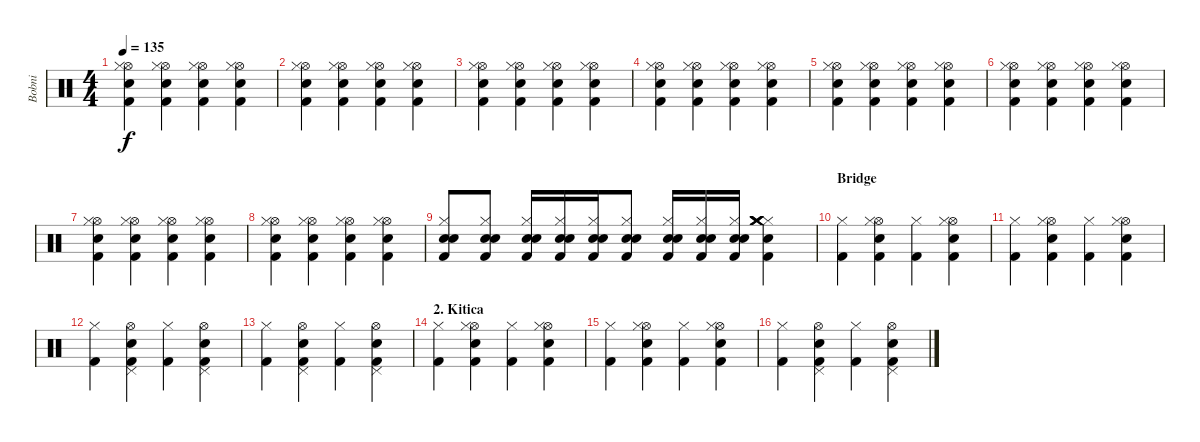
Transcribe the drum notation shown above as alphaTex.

\track ("Bobni" "Bobni") {instrument percussion}
\staff {score}
\articulation defaults
\ts (4 4)
\tempo 135
\clef neutral
\ks c
("Hi-Hat (open)" "Snare (hit) 2" "Hi-Hat (closed)" "Kick (hit) 2").4{dy f} ("Hi-Hat (open)" "Snare (hit) 2" "Hi-Hat (closed)" "Kick (hit) 2").4 ("Hi-Hat (open)" "Snare (hit) 2" "Hi-Hat (closed)" "Kick (hit) 2").4 ("Hi-Hat (open)" "Snare (hit) 2" "Hi-Hat (closed)" "Kick (hit) 2").4 |
("Hi-Hat (open)" "Snare (hit) 2" "Hi-Hat (closed)" "Kick (hit) 2").4 ("Hi-Hat (open)" "Snare (hit) 2" "Hi-Hat (closed)" "Kick (hit) 2").4 ("Hi-Hat (open)" "Snare (hit) 2" "Hi-Hat (closed)" "Kick (hit) 2").4 ("Hi-Hat (open)" "Snare (hit) 2" "Hi-Hat (closed)" "Kick (hit) 2").4 |
("Hi-Hat (open)" "Snare (hit) 2" "Hi-Hat (closed)" "Kick (hit) 2").4 ("Hi-Hat (open)" "Snare (hit) 2" "Hi-Hat (closed)" "Kick (hit) 2").4 ("Hi-Hat (open)" "Snare (hit) 2" "Hi-Hat (closed)" "Kick (hit) 2").4 ("Hi-Hat (open)" "Snare (hit) 2" "Hi-Hat (closed)" "Kick (hit) 2").4 |
("Hi-Hat (open)" "Snare (hit) 2" "Hi-Hat (closed)" "Kick (hit) 2").4 ("Hi-Hat (open)" "Snare (hit) 2" "Hi-Hat (closed)" "Kick (hit) 2").4 ("Hi-Hat (open)" "Snare (hit) 2" "Hi-Hat (closed)" "Kick (hit) 2").4 ("Hi-Hat (open)" "Snare (hit) 2" "Hi-Hat (closed)" "Kick (hit) 2").4 |
("Hi-Hat (open)" "Snare (hit) 2" "Hi-Hat (closed)" "Kick (hit) 2").4 ("Hi-Hat (open)" "Snare (hit) 2" "Hi-Hat (closed)" "Kick (hit) 2").4 ("Hi-Hat (open)" "Snare (hit) 2" "Hi-Hat (closed)" "Kick (hit) 2").4 ("Hi-Hat (open)" "Snare (hit) 2" "Hi-Hat (closed)" "Kick (hit) 2").4 |
("Hi-Hat (open)" "Snare (hit) 2" "Hi-Hat (closed)" "Kick (hit) 2").4 ("Hi-Hat (open)" "Snare (hit) 2" "Hi-Hat (closed)" "Kick (hit) 2").4 ("Hi-Hat (open)" "Snare (hit) 2" "Hi-Hat (closed)" "Kick (hit) 2").4 ("Hi-Hat (open)" "Snare (hit) 2" "Hi-Hat (closed)" "Kick (hit) 2").4 |
("Hi-Hat (open)" "Snare (hit) 2" "Hi-Hat (closed)" "Kick (hit) 2").4 ("Hi-Hat (open)" "Snare (hit) 2" "Hi-Hat (closed)" "Kick (hit) 2").4 ("Hi-Hat (open)" "Snare (hit) 2" "Hi-Hat (closed)" "Kick (hit) 2").4 ("Hi-Hat (open)" "Snare (hit) 2" "Hi-Hat (closed)" "Kick (hit) 2").4 |
("Hi-Hat (open)" "Snare (hit) 2" "Hi-Hat (closed)" "Kick (hit) 2").4 ("Hi-Hat (open)" "Snare (hit) 2" "Hi-Hat (closed)" "Kick (hit) 2").4 ("Hi-Hat (open)" "Snare (hit) 2" "Hi-Hat (closed)" "Kick (hit) 2").4 ("Hi-Hat (open)" "Snare (hit) 2" "Hi-Hat (closed)" "Kick (hit) 2").4 |
("Hi-Hat (closed)" "Snare (hit) 2" "Snare (hit) 2" "Kick (hit) 2").8 ("Hi-Hat (closed)" "Snare (hit) 2" "Snare (hit) 2" "Kick (hit) 2").8 ("Hi-Hat (closed)" "Snare (hit) 2" "Snare (hit) 2" "Kick (hit) 2").16 ("Hi-Hat (closed)" "Snare (hit) 2" "Snare (hit) 2" "Kick (hit) 2").16 ("Hi-Hat (closed)" "Snare (hit) 2" "Snare (hit) 2" "Kick (hit) 2").16 ("Hi-Hat (closed)" "Snare (hit) 2" "Snare (hit) 2" "Kick (hit) 2").8 ("Hi-Hat (closed)" "Snare (hit) 2" "Snare (hit) 2" "Kick (hit) 2").16 ("Hi-Hat (closed)" "Snare (hit) 2" "Snare (hit) 2" "Kick (hit) 2").16 ("Hi-Hat (closed)" "Snare (hit) 2" "Snare (hit) 2" "Kick (hit) 2").16 ("Hi-Hat (closed)" "Crash medium (hit)" "Snare (hit) 2" "Crash medium (hit)" "Crash medium (hit)" "Kick (hit) 2").4 |
\section ("" "Bridge")
("Hi-Hat (closed)" "Kick (hit) 2").4 ("Hi-Hat (open)" "Snare (hit) 2" "Hi-Hat (closed)" "Kick (hit) 2").4 ("Hi-Hat (closed)" "Kick (hit) 2").4 ("Hi-Hat (open)" "Snare (hit) 2" "Hi-Hat (closed)" "Kick (hit) 2").4 |
("Hi-Hat (closed)" "Kick (hit) 2").4 ("Hi-Hat (open)" "Snare (hit) 2" "Hi-Hat (closed)" "Kick (hit) 2").4 ("Hi-Hat (closed)" "Kick (hit) 2").4 ("Hi-Hat (open)" "Snare (hit) 2" "Hi-Hat (closed)" "Kick (hit) 2").4 |
("Hi-Hat (closed)" "Kick (hit) 2").4 ("Hi-Hat (open)" "Snare (hit) 2" "Pedal Hi-Hat (hit)" "Kick (hit) 2").4 ("Hi-Hat (closed)" "Kick (hit) 2").4 ("Hi-Hat (open)" "Snare (hit) 2" "Pedal Hi-Hat (hit)" "Kick (hit) 2").4 |
("Hi-Hat (closed)" "Kick (hit) 2").4 ("Hi-Hat (open)" "Snare (hit) 2" "Pedal Hi-Hat (hit)" "Kick (hit) 2").4 ("Hi-Hat (closed)" "Kick (hit) 2").4 ("Hi-Hat (open)" "Snare (hit) 2" "Pedal Hi-Hat (hit)" "Kick (hit) 2").4 |
\section ("" "2. Kitica")
("Hi-Hat (closed)" "Kick (hit) 2").4 ("Hi-Hat (open)" "Snare (hit) 2" "Hi-Hat (closed)" "Kick (hit) 2").4 ("Hi-Hat (closed)" "Kick (hit) 2").4 ("Hi-Hat (open)" "Snare (hit) 2" "Hi-Hat (closed)" "Kick (hit) 2").4 |
("Hi-Hat (closed)" "Kick (hit) 2").4 ("Hi-Hat (open)" "Snare (hit) 2" "Hi-Hat (closed)" "Kick (hit) 2").4 ("Hi-Hat (closed)" "Kick (hit) 2").4 ("Hi-Hat (open)" "Snare (hit) 2" "Hi-Hat (closed)" "Kick (hit) 2").4 |
("Hi-Hat (closed)" "Kick (hit) 2").4 ("Hi-Hat (open)" "Snare (hit) 2" "Pedal Hi-Hat (hit)" "Kick (hit) 2").4 ("Hi-Hat (closed)" "Kick (hit) 2").4 ("Hi-Hat (open)" "Snare (hit) 2" "Pedal Hi-Hat (hit)" "Kick (hit) 2").4
